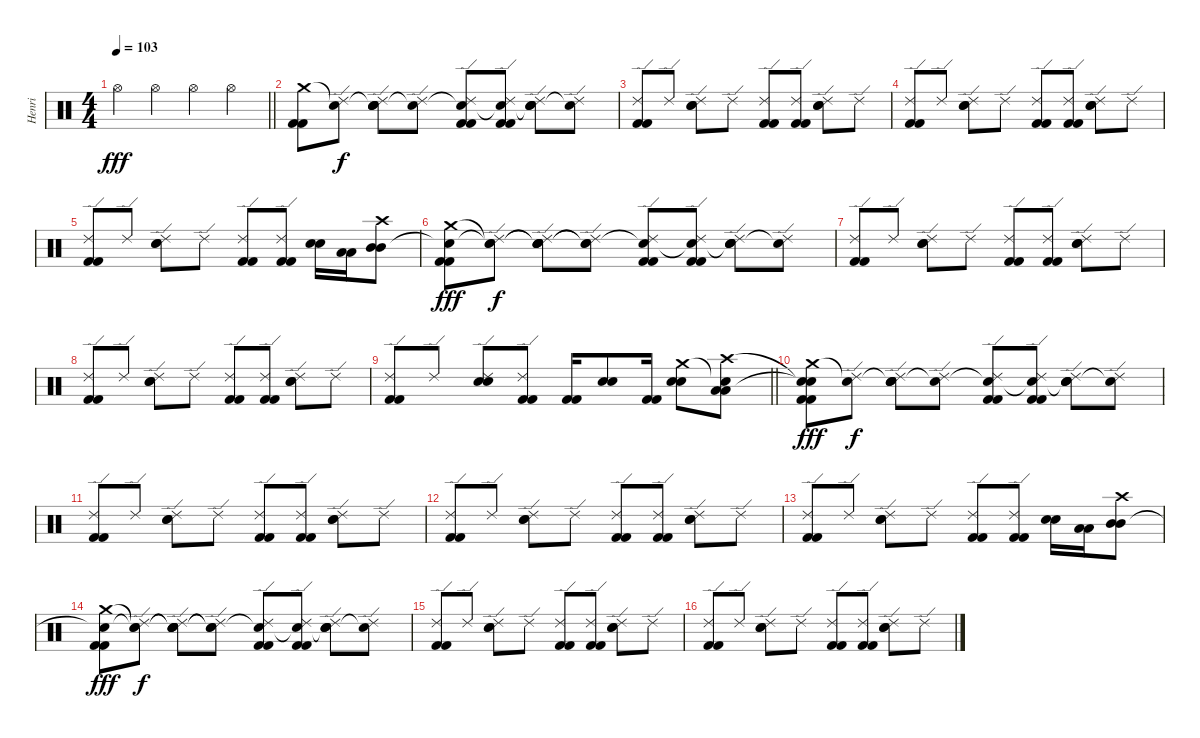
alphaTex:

\track ("Henri" "Henri") {instrument percussion}
\staff {score}
\articulation defaults
\ts (4 4)
\tempo 103
\clef neutral
\barLineRight lightlight
\ks c "Hi-Hat (open)".4{dy fff} "Hi-Hat (open)".4 "Hi-Hat (open)".4 "Hi-Hat (open)".4
|
("Crash medium (hit)" "Kick (hit) 2" "Kick (hit) 2").8 ("Snare (hit)"{t} "Ride (edge) 2").8{dy f} ("Snare (hit)"{t} "Ride (edge) 2" "Snare (hit) 2" "Snare (hit) 2").8 ("Snare (hit)"{t} "Ride (edge) 2").8 ("Snare (hit)"{t} "Ride (edge) 2" "Kick (hit) 2" "Kick (hit) 2").8 ("Snare (hit)"{t} "Ride (edge) 2" "Kick (hit) 2" "Kick (hit) 2").8 ("Snare (hit)"{t} "Ride (edge) 2" "Snare (hit) 2" "Snare (hit) 2").8 ("Snare (hit)"{t} "Ride (edge) 2").8 |
("Ride (edge) 2" "Kick (hit) 2" "Kick (hit) 2").8 "Ride (edge) 2".8 ("Ride (edge) 2" "Snare (hit) 2" "Snare (hit) 2").8 "Ride (edge) 2".8 ("Ride (edge) 2" "Kick (hit) 2" "Kick (hit) 2").8 ("Ride (edge) 2" "Kick (hit) 2" "Kick (hit) 2").8 ("Ride (edge) 2" "Snare (hit) 2" "Snare (hit) 2").8 "Ride (edge) 2".8 |
("Ride (edge) 2" "Kick (hit) 2" "Kick (hit) 2").8 "Ride (edge) 2".8 ("Ride (edge) 2" "Snare (hit) 2" "Snare (hit) 2").8 "Ride (edge) 2".8 ("Ride (edge) 2" "Kick (hit) 2" "Kick (hit) 2").8 ("Ride (edge) 2" "Kick (hit) 2" "Kick (hit) 2").8 ("Ride (edge) 2" "Snare (hit) 2" "Snare (hit) 2").8 "Ride (edge) 2".8 |
("Ride (edge) 2" "Kick (hit) 2" "Kick (hit) 2").8 "Ride (edge) 2".8 ("Ride (edge) 2" "Snare (hit) 2" "Snare (hit) 2").8 "Ride (edge) 2".8 ("Ride (edge) 2" "Kick (hit) 2" "Kick (hit) 2").8 ("Ride (edge) 2" "Kick (hit) 2" "Kick (hit) 2").8 ("Snare (hit) 2" "Snare (hit) 2").16 ("Low Tom (hit)" "Low Tom (hit)").16 ("Crash high (hit)" "Mid Tom (hit)" "Mid Tom (hit)").8 |
("Crash medium (hit)" "Snare (hit)"{t} "Kick (hit) 2" "Kick (hit) 2").8{dy fff} ("Snare (hit)"{t} "Snare (hit)"{t} "Ride (edge) 2").8{dy f} ("Snare (hit)"{t} "Snare (hit)"{t} "Ride (edge) 2" "Snare (hit) 2" "Snare (hit) 2").8 ("Snare (hit)"{t} "Snare (hit)"{t} "Ride (edge) 2").8 ("Snare (hit)"{t} "Ride (edge) 2" "Kick (hit) 2" "Kick (hit) 2").8 ("Snare (hit)"{t} "Ride (edge) 2" "Kick (hit) 2" "Kick (hit) 2").8 ("Snare (hit)"{t} "Ride (edge) 2" "Snare (hit) 2" "Snare (hit) 2").8 ("Snare (hit)"{t} "Ride (edge) 2").8 |
("Ride (edge) 2" "Kick (hit) 2" "Kick (hit) 2").8 "Ride (edge) 2".8 ("Ride (edge) 2" "Snare (hit) 2" "Snare (hit) 2").8 "Ride (edge) 2".8 ("Ride (edge) 2" "Kick (hit) 2" "Kick (hit) 2").8 ("Ride (edge) 2" "Kick (hit) 2" "Kick (hit) 2").8 ("Ride (edge) 2" "Snare (hit) 2" "Snare (hit) 2").8 "Ride (edge) 2".8 |
("Ride (edge) 2" "Kick (hit) 2" "Kick (hit) 2").8 "Ride (edge) 2".8 ("Ride (edge) 2" "Snare (hit) 2" "Snare (hit) 2").8 "Ride (edge) 2".8 ("Ride (edge) 2" "Kick (hit) 2" "Kick (hit) 2").8 ("Ride (edge) 2" "Kick (hit) 2" "Kick (hit) 2").8 ("Ride (edge) 2" "Snare (hit) 2" "Snare (hit) 2").8 "Ride (edge) 2".8 |
\barLineRight lightlight
("Ride (edge) 2" "Kick (hit) 2" "Kick (hit) 2").8 "Ride (edge) 2".8 ("Ride (edge) 2" "Snare (hit) 2" "Snare (hit) 2").8 ("Ride (edge) 2" "Kick (hit) 2" "Kick (hit) 2").8 ("Kick (hit) 2" "Kick (hit) 2").16 ("Snare (hit) 2" "Snare (hit) 2").8 ("Kick (hit) 2" "Kick (hit) 2").16 ("Crash medium (hit)" "Snare (hit) 2" "Snare (hit) 2").8 ("Snare (hit)"{t} "Crash high (hit)" "Low Tom (hit)" "Low Tom (hit)").8 |
("Crash medium (hit)" "Snare (hit)"{t} "Snare (hit)"{t} "Kick (hit) 2" "Kick (hit) 2").8{dy fff} ("Snare (hit)"{t} "Ride (edge) 2").8{dy f} ("Snare (hit)"{t} "Ride (edge) 2" "Snare (hit) 2" "Snare (hit) 2").8 ("Snare (hit)"{t} "Ride (edge) 2").8 ("Snare (hit)"{t} "Ride (edge) 2" "Kick (hit) 2" "Kick (hit) 2").8 ("Snare (hit)"{t} "Ride (edge) 2" "Kick (hit) 2" "Kick (hit) 2").8 ("Snare (hit)"{t} "Ride (edge) 2" "Snare (hit) 2" "Snare (hit) 2").8 ("Snare (hit)"{t} "Ride (edge) 2").8 |
("Ride (edge) 2" "Kick (hit) 2" "Kick (hit) 2").8 "Ride (edge) 2".8 ("Ride (edge) 2" "Snare (hit) 2" "Snare (hit) 2").8 "Ride (edge) 2".8 ("Ride (edge) 2" "Kick (hit) 2" "Kick (hit) 2").8 ("Ride (edge) 2" "Kick (hit) 2" "Kick (hit) 2").8 ("Ride (edge) 2" "Snare (hit) 2" "Snare (hit) 2").8 "Ride (edge) 2".8 |
("Ride (edge) 2" "Kick (hit) 2" "Kick (hit) 2").8 "Ride (edge) 2".8 ("Ride (edge) 2" "Snare (hit) 2" "Snare (hit) 2").8 "Ride (edge) 2".8 ("Ride (edge) 2" "Kick (hit) 2" "Kick (hit) 2").8 ("Ride (edge) 2" "Kick (hit) 2" "Kick (hit) 2").8 ("Ride (edge) 2" "Snare (hit) 2" "Snare (hit) 2").8 "Ride (edge) 2".8 |
("Ride (edge) 2" "Kick (hit) 2" "Kick (hit) 2").8 "Ride (edge) 2".8 ("Ride (edge) 2" "Snare (hit) 2" "Snare (hit) 2").8 "Ride (edge) 2".8 ("Ride (edge) 2" "Kick (hit) 2" "Kick (hit) 2").8 ("Ride (edge) 2" "Kick (hit) 2" "Kick (hit) 2").8 ("Snare (hit) 2" "Snare (hit) 2").16 ("Low Tom (hit)" "Low Tom (hit)").16 ("Crash high (hit)" "Mid Tom (hit)" "Mid Tom (hit)").8 |
("Crash medium (hit)" "Snare (hit)"{t} "Kick (hit) 2" "Kick (hit) 2").8{dy fff} ("Snare (hit)"{t} "Snare (hit)"{t} "Ride (edge) 2").8{dy f} ("Snare (hit)"{t} "Snare (hit)"{t} "Ride (edge) 2" "Snare (hit) 2" "Snare (hit) 2").8 ("Snare (hit)"{t} "Snare (hit)"{t} "Ride (edge) 2").8 ("Snare (hit)"{t} "Ride (edge) 2" "Kick (hit) 2" "Kick (hit) 2").8 ("Snare (hit)"{t} "Ride (edge) 2" "Kick (hit) 2" "Kick (hit) 2").8 ("Snare (hit)"{t} "Ride (edge) 2" "Snare (hit) 2" "Snare (hit) 2").8 ("Snare (hit)"{t} "Ride (edge) 2").8 |
("Ride (edge) 2" "Kick (hit) 2" "Kick (hit) 2").8 "Ride (edge) 2".8 ("Ride (edge) 2" "Snare (hit) 2" "Snare (hit) 2").8 "Ride (edge) 2".8 ("Ride (edge) 2" "Kick (hit) 2" "Kick (hit) 2").8 ("Ride (edge) 2" "Kick (hit) 2" "Kick (hit) 2").8 ("Ride (edge) 2" "Snare (hit) 2" "Snare (hit) 2").8 "Ride (edge) 2".8 |
("Ride (edge) 2" "Kick (hit) 2" "Kick (hit) 2").8 "Ride (edge) 2".8 ("Ride (edge) 2" "Snare (hit) 2" "Snare (hit) 2").8 "Ride (edge) 2".8 ("Ride (edge) 2" "Kick (hit) 2" "Kick (hit) 2").8 ("Ride (edge) 2" "Kick (hit) 2" "Kick (hit) 2").8 ("Ride (edge) 2" "Snare (hit) 2" "Snare (hit) 2").8 "Ride (edge) 2".8
